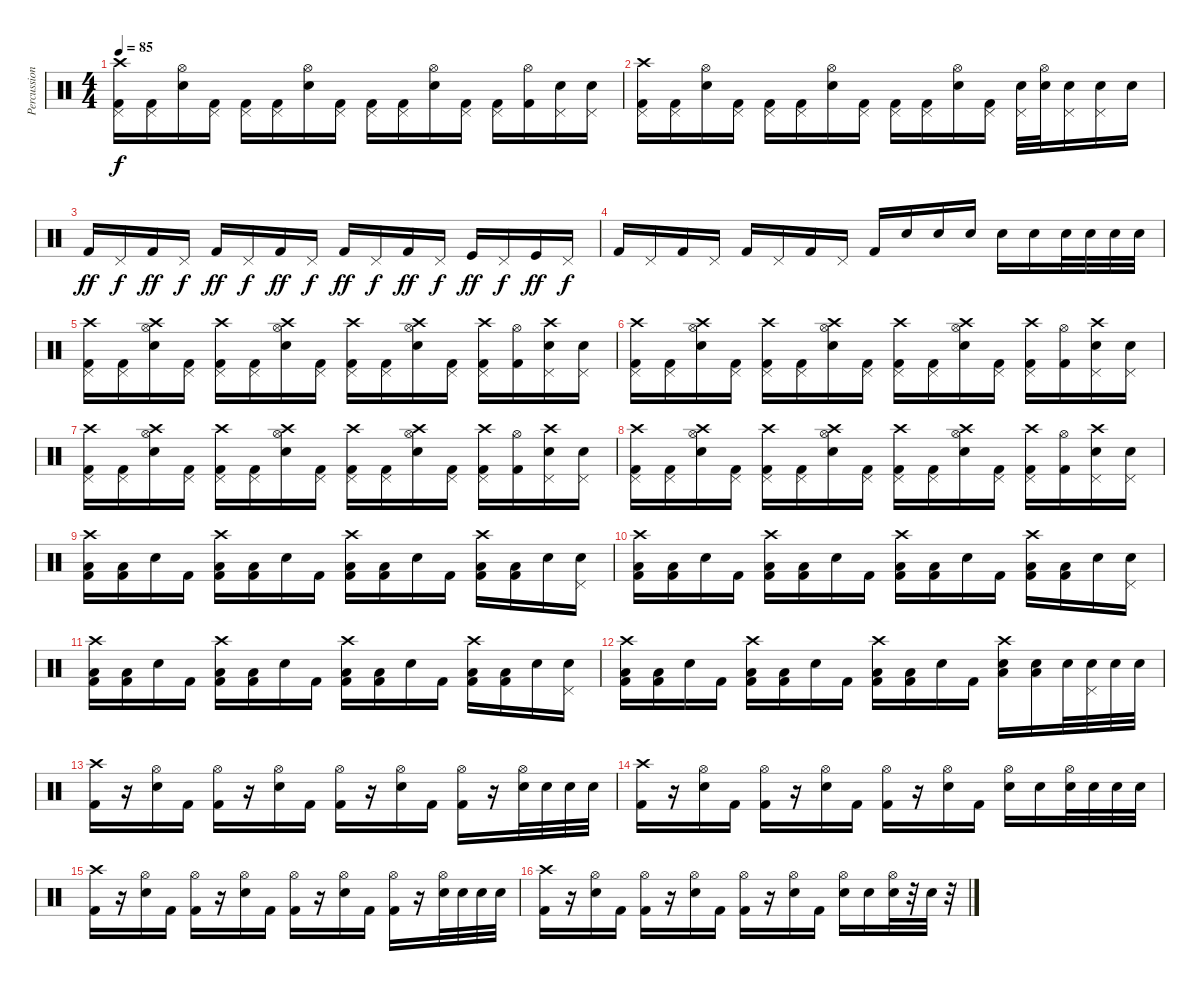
\track ("Percussion" "Percussion") {instrument percussion}
\staff {score}
\articulation defaults
\ts (4 4)
\tempo 85
\clef neutral
\ks c
("Crash high (hit)" "Pedal Hi-Hat (hit)" "Kick (hit) 2").16{dy f} ("Pedal Hi-Hat (hit)" "Kick (hit) 2").16 ("Hi-Hat (open)" "Electric Snare (hit)").16 ("Pedal Hi-Hat (hit)" "Kick (hit) 2").16 ("Pedal Hi-Hat (hit)" "Kick (hit) 2").16 ("Pedal Hi-Hat (hit)" "Kick (hit) 2").16 ("Hi-Hat (open)" "Electric Snare (hit)").16 ("Pedal Hi-Hat (hit)" "Kick (hit) 2").16 ("Pedal Hi-Hat (hit)" "Kick (hit) 2").16 ("Pedal Hi-Hat (hit)" "Kick (hit) 2").16 ("Hi-Hat (open)" "Electric Snare (hit)").16 ("Pedal Hi-Hat (hit)" "Kick (hit) 2").16 ("Pedal Hi-Hat (hit)" "Kick (hit) 2").16 ("Hi-Hat (open)" "Kick (hit) 2").16 ("Pedal Hi-Hat (hit)" "Electric Snare (hit)").16 ("Pedal Hi-Hat (hit)" "Electric Snare (hit)").16 |
("Crash high (hit)" "Pedal Hi-Hat (hit)" "Kick (hit) 2").16 ("Pedal Hi-Hat (hit)" "Kick (hit) 2").16 ("Hi-Hat (open)" "Electric Snare (hit)").16 ("Pedal Hi-Hat (hit)" "Kick (hit) 2").16 ("Pedal Hi-Hat (hit)" "Kick (hit) 2").16 ("Pedal Hi-Hat (hit)" "Kick (hit) 2").16 ("Hi-Hat (open)" "Electric Snare (hit)").16 ("Pedal Hi-Hat (hit)" "Kick (hit) 2").16 ("Pedal Hi-Hat (hit)" "Kick (hit) 2").16 ("Pedal Hi-Hat (hit)" "Kick (hit) 2").16 ("Hi-Hat (open)" "Electric Snare (hit)").16 ("Pedal Hi-Hat (hit)" "Kick (hit) 2").16 ("Pedal Hi-Hat (hit)" "Electric Snare (hit)").32 ("Hi-Hat (open)" "Electric Snare (hit)").32 ("Pedal Hi-Hat (hit)" "Electric Snare (hit)").16 ("Pedal Hi-Hat (hit)" "Electric Snare (hit)").16 "Electric Snare (hit)".16 |
"Kick (hit) 2".16{dy ff} "Pedal Hi-Hat (hit)".16{dy f} "Kick (hit) 2".16{dy ff} "Pedal Hi-Hat (hit)".16{dy f} "Kick (hit) 2".16{dy ff} "Pedal Hi-Hat (hit)".16{dy f} "Kick (hit) 2".16{dy ff} "Pedal Hi-Hat (hit)".16{dy f} "Kick (hit) 2".16{dy ff} "Pedal Hi-Hat (hit)".16{dy f} "Kick (hit) 2".16{dy ff} "Pedal Hi-Hat (hit)".16{dy f} "Kick (hit)".16{dy ff} "Pedal Hi-Hat (hit)".16{dy f} "Kick (hit)".16{dy ff} "Pedal Hi-Hat (hit)".16{dy f} |
"Kick (hit) 2".16 "Pedal Hi-Hat (hit)".16 "Kick (hit) 2".16 "Pedal Hi-Hat (hit)".16 "Kick (hit) 2".16 "Pedal Hi-Hat (hit)".16 "Kick (hit) 2".16 "Pedal Hi-Hat (hit)".16 "Kick (hit) 2".16 "Electric Snare (hit)".16 "Electric Snare (hit)".16 "Electric Snare (hit)".16 "Electric Snare (hit)".16 "Electric Snare (hit)".16 "Electric Snare (hit)".32 "Electric Snare (hit)".32 "Electric Snare (hit)".32 "Electric Snare (hit)".32 |
("Crash high (hit)" "Pedal Hi-Hat (hit)" "Kick (hit) 2").16 ("Pedal Hi-Hat (hit)" "Kick (hit) 2").16 ("Crash high (hit)" "Hi-Hat (open)" "Electric Snare (hit)").16 ("Pedal Hi-Hat (hit)" "Kick (hit) 2").16 ("Crash high (hit)" "Pedal Hi-Hat (hit)" "Kick (hit) 2").16 ("Pedal Hi-Hat (hit)" "Kick (hit) 2").16 ("Crash high (hit)" "Hi-Hat (open)" "Electric Snare (hit)").16 ("Pedal Hi-Hat (hit)" "Kick (hit) 2").16 ("Crash high (hit)" "Pedal Hi-Hat (hit)" "Kick (hit) 2").16 ("Pedal Hi-Hat (hit)" "Kick (hit) 2").16 ("Crash high (hit)" "Hi-Hat (open)" "Electric Snare (hit)").16 ("Pedal Hi-Hat (hit)" "Kick (hit) 2").16 ("Crash high (hit)" "Pedal Hi-Hat (hit)" "Kick (hit) 2").16 ("Hi-Hat (open)" "Kick (hit) 2").16 ("Crash high (hit)" "Pedal Hi-Hat (hit)" "Electric Snare (hit)").16 ("Pedal Hi-Hat (hit)" "Electric Snare (hit)").16 |
("Crash high (hit)" "Pedal Hi-Hat (hit)" "Kick (hit) 2").16 ("Pedal Hi-Hat (hit)" "Kick (hit) 2").16 ("Crash high (hit)" "Hi-Hat (open)" "Electric Snare (hit)").16 ("Pedal Hi-Hat (hit)" "Kick (hit) 2").16 ("Crash high (hit)" "Pedal Hi-Hat (hit)" "Kick (hit) 2").16 ("Pedal Hi-Hat (hit)" "Kick (hit) 2").16 ("Crash high (hit)" "Hi-Hat (open)" "Electric Snare (hit)").16 ("Pedal Hi-Hat (hit)" "Kick (hit) 2").16 ("Crash high (hit)" "Pedal Hi-Hat (hit)" "Kick (hit) 2").16 ("Pedal Hi-Hat (hit)" "Kick (hit) 2").16 ("Crash high (hit)" "Hi-Hat (open)" "Electric Snare (hit)").16 ("Pedal Hi-Hat (hit)" "Kick (hit) 2").16 ("Crash high (hit)" "Pedal Hi-Hat (hit)" "Kick (hit) 2").16 ("Hi-Hat (open)" "Kick (hit) 2").16 ("Crash high (hit)" "Pedal Hi-Hat (hit)" "Electric Snare (hit)").16 ("Pedal Hi-Hat (hit)" "Electric Snare (hit)").16 |
("Crash high (hit)" "Pedal Hi-Hat (hit)" "Kick (hit) 2").16 ("Pedal Hi-Hat (hit)" "Kick (hit) 2").16 ("Crash high (hit)" "Hi-Hat (open)" "Electric Snare (hit)").16 ("Pedal Hi-Hat (hit)" "Kick (hit) 2").16 ("Crash high (hit)" "Pedal Hi-Hat (hit)" "Kick (hit) 2").16 ("Pedal Hi-Hat (hit)" "Kick (hit) 2").16 ("Crash high (hit)" "Hi-Hat (open)" "Electric Snare (hit)").16 ("Pedal Hi-Hat (hit)" "Kick (hit) 2").16 ("Crash high (hit)" "Pedal Hi-Hat (hit)" "Kick (hit) 2").16 ("Pedal Hi-Hat (hit)" "Kick (hit) 2").16 ("Crash high (hit)" "Hi-Hat (open)" "Electric Snare (hit)").16 ("Pedal Hi-Hat (hit)" "Kick (hit) 2").16 ("Crash high (hit)" "Pedal Hi-Hat (hit)" "Kick (hit) 2").16 ("Hi-Hat (open)" "Kick (hit) 2").16 ("Crash high (hit)" "Pedal Hi-Hat (hit)" "Electric Snare (hit)").16 ("Pedal Hi-Hat (hit)" "Electric Snare (hit)").16 |
("Crash high (hit)" "Pedal Hi-Hat (hit)" "Kick (hit) 2").16 ("Pedal Hi-Hat (hit)" "Kick (hit) 2").16 ("Crash high (hit)" "Hi-Hat (open)" "Electric Snare (hit)").16 ("Pedal Hi-Hat (hit)" "Kick (hit) 2").16 ("Crash high (hit)" "Pedal Hi-Hat (hit)" "Kick (hit) 2").16 ("Pedal Hi-Hat (hit)" "Kick (hit) 2").16 ("Crash high (hit)" "Hi-Hat (open)" "Electric Snare (hit)").16 ("Pedal Hi-Hat (hit)" "Kick (hit) 2").16 ("Crash high (hit)" "Pedal Hi-Hat (hit)" "Kick (hit) 2").16 ("Pedal Hi-Hat (hit)" "Kick (hit) 2").16 ("Crash high (hit)" "Hi-Hat (open)" "Electric Snare (hit)").16 ("Pedal Hi-Hat (hit)" "Kick (hit) 2").16 ("Crash high (hit)" "Pedal Hi-Hat (hit)" "Kick (hit) 2").16 ("Hi-Hat (open)" "Kick (hit) 2").16 ("Crash high (hit)" "Pedal Hi-Hat (hit)" "Electric Snare (hit)").16 ("Pedal Hi-Hat (hit)" "Electric Snare (hit)").16 |
("Crash high (hit)" "Low Tom (hit)" "Kick (hit) 2").16 ("Low Tom (hit)" "Kick (hit) 2").16 "Electric Snare (hit)".16 "Kick (hit) 2".16 ("Crash high (hit)" "Low Tom (hit)" "Kick (hit) 2").16 ("Low Tom (hit)" "Kick (hit) 2").16 "Electric Snare (hit)".16 "Kick (hit) 2".16 ("Crash high (hit)" "Low Tom (hit)" "Kick (hit) 2").16 ("Low Tom (hit)" "Kick (hit) 2").16 "Electric Snare (hit)".16 "Kick (hit) 2".16 ("Crash high (hit)" "Low Tom (hit)" "Kick (hit) 2").16 ("Low Tom (hit)" "Kick (hit) 2").16 "Electric Snare (hit)".16 ("Pedal Hi-Hat (hit)" "Electric Snare (hit)").16 |
("Crash high (hit)" "Low Tom (hit)" "Kick (hit) 2").16 ("Low Tom (hit)" "Kick (hit) 2").16 "Electric Snare (hit)".16 "Kick (hit) 2".16 ("Crash high (hit)" "Low Tom (hit)" "Kick (hit) 2").16 ("Low Tom (hit)" "Kick (hit) 2").16 "Electric Snare (hit)".16 "Kick (hit) 2".16 ("Crash high (hit)" "Low Tom (hit)" "Kick (hit) 2").16 ("Low Tom (hit)" "Kick (hit) 2").16 "Electric Snare (hit)".16 "Kick (hit) 2".16 ("Crash high (hit)" "Low Tom (hit)" "Kick (hit) 2").16 ("Low Tom (hit)" "Kick (hit) 2").16 "Electric Snare (hit)".16 ("Pedal Hi-Hat (hit)" "Electric Snare (hit)").16 |
("Crash high (hit)" "Low Tom (hit)" "Kick (hit) 2").16 ("Low Tom (hit)" "Kick (hit) 2").16 "Electric Snare (hit)".16 "Kick (hit) 2".16 ("Crash high (hit)" "Low Tom (hit)" "Kick (hit) 2").16 ("Low Tom (hit)" "Kick (hit) 2").16 "Electric Snare (hit)".16 "Kick (hit) 2".16 ("Crash high (hit)" "Low Tom (hit)" "Kick (hit) 2").16 ("Low Tom (hit)" "Kick (hit) 2").16 "Electric Snare (hit)".16 "Kick (hit) 2".16 ("Crash high (hit)" "Low Tom (hit)" "Kick (hit) 2").16 ("Low Tom (hit)" "Kick (hit) 2").16 "Electric Snare (hit)".16 ("Pedal Hi-Hat (hit)" "Electric Snare (hit)").16 |
("Crash high (hit)" "Low Tom (hit)" "Kick (hit) 2").16 ("Low Tom (hit)" "Kick (hit) 2").16 "Electric Snare (hit)".16 "Kick (hit) 2".16 ("Crash high (hit)" "Low Tom (hit)" "Kick (hit) 2").16 ("Low Tom (hit)" "Kick (hit) 2").16 "Electric Snare (hit)".16 "Kick (hit) 2".16 ("Crash high (hit)" "Low Tom (hit)" "Kick (hit) 2").16 ("Low Tom (hit)" "Kick (hit) 2").16 "Electric Snare (hit)".16 "Kick (hit) 2".16 ("Crash high (hit)" "Low Tom (hit)" "Electric Snare (hit)").16 ("Low Tom (hit)" "Electric Snare (hit)").16 "Electric Snare (hit)".32 ("Pedal Hi-Hat (hit)" "Electric Snare (hit)").32 "Electric Snare (hit)".32 "Electric Snare (hit)".32 |
("Crash high (hit)" "Kick (hit) 2").16 r.16 ("Hi-Hat (open)" "Electric Snare (hit)").16 "Kick (hit) 2".16 ("Hi-Hat (open)" "Kick (hit) 2").16 r.16 ("Hi-Hat (open)" "Electric Snare (hit)").16 "Kick (hit) 2".16 ("Hi-Hat (open)" "Kick (hit) 2").16 r.16 ("Hi-Hat (open)" "Electric Snare (hit)").16 "Kick (hit) 2".16 ("Hi-Hat (open)" "Kick (hit) 2").16 r.16 ("Hi-Hat (open)" "Electric Snare (hit)").32 "Electric Snare (hit)".32 "Electric Snare (hit)".32 "Electric Snare (hit)".32 |
("Crash high (hit)" "Kick (hit) 2").16 r.16 ("Hi-Hat (open)" "Electric Snare (hit)").16 "Kick (hit) 2".16 ("Hi-Hat (open)" "Kick (hit) 2").16 r.16 ("Hi-Hat (open)" "Electric Snare (hit)").16 "Kick (hit) 2".16 ("Hi-Hat (open)" "Kick (hit) 2").16 r.16 ("Hi-Hat (open)" "Electric Snare (hit)").16 "Kick (hit) 2".16 ("Hi-Hat (open)" "Electric Snare (hit)").16 "Electric Snare (hit)".16 ("Hi-Hat (open)" "Electric Snare (hit)").32 "Electric Snare (hit)".32 "Electric Snare (hit)".32 "Electric Snare (hit)".32 |
("Crash high (hit)" "Kick (hit) 2").16 r.16 ("Hi-Hat (open)" "Electric Snare (hit)").16 "Kick (hit) 2".16 ("Hi-Hat (open)" "Kick (hit) 2").16 r.16 ("Hi-Hat (open)" "Electric Snare (hit)").16 "Kick (hit) 2".16 ("Hi-Hat (open)" "Kick (hit) 2").16 r.16 ("Hi-Hat (open)" "Electric Snare (hit)").16 "Kick (hit) 2".16 ("Hi-Hat (open)" "Kick (hit) 2").16 r.16 ("Hi-Hat (open)" "Electric Snare (hit)").32 "Electric Snare (hit)".32 "Electric Snare (hit)".32 "Electric Snare (hit)".32 |
("Crash high (hit)" "Kick (hit) 2").16 r.16 ("Hi-Hat (open)" "Electric Snare (hit)").16 "Kick (hit) 2".16 ("Hi-Hat (open)" "Kick (hit) 2").16 r.16 ("Hi-Hat (open)" "Electric Snare (hit)").16 "Kick (hit) 2".16 ("Hi-Hat (open)" "Kick (hit) 2").16 r.16 ("Hi-Hat (open)" "Electric Snare (hit)").16 "Kick (hit) 2".16 ("Hi-Hat (open)" "Electric Snare (hit)").16 "Electric Snare (hit)".16 ("Hi-Hat (open)" "Electric Snare (hit)").32 r.32 "Electric Snare (hit)".32 r.32
